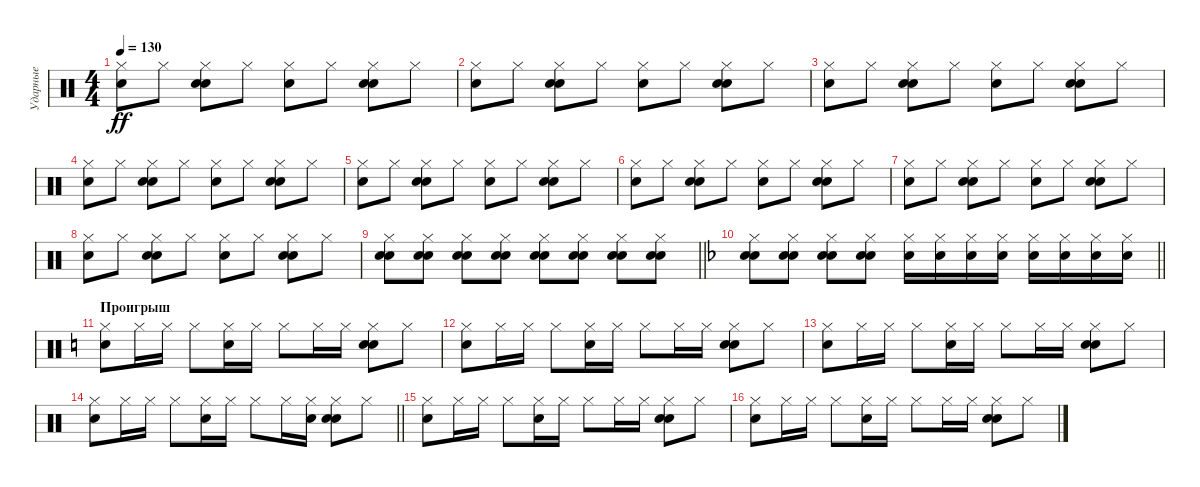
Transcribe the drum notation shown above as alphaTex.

\track ("Ударные" "Ударные") {instrument percussion}
\staff {score}
\articulation defaults
\ts (4 4)
\tempo 130
\clef neutral
\ks c
("Hi-Hat (closed)" "Snare (hit) 2").8{dy ff} "Hi-Hat (closed)".8 ("Hi-Hat (closed)" "Snare (hit) 2" "Electric Snare (hit)").8 "Hi-Hat (closed)".8 ("Hi-Hat (closed)" "Snare (hit) 2").8 "Hi-Hat (closed)".8 ("Hi-Hat (closed)" "Snare (hit) 2" "Electric Snare (hit)").8 "Hi-Hat (closed)".8 |
("Hi-Hat (closed)" "Snare (hit) 2").8 "Hi-Hat (closed)".8 ("Hi-Hat (closed)" "Snare (hit) 2" "Electric Snare (hit)").8 "Hi-Hat (closed)".8 ("Hi-Hat (closed)" "Snare (hit) 2").8 "Hi-Hat (closed)".8 ("Hi-Hat (closed)" "Snare (hit) 2" "Electric Snare (hit)").8 "Hi-Hat (closed)".8 |
("Hi-Hat (closed)" "Snare (hit) 2").8 "Hi-Hat (closed)".8 ("Hi-Hat (closed)" "Snare (hit) 2" "Electric Snare (hit)").8 "Hi-Hat (closed)".8 ("Hi-Hat (closed)" "Snare (hit) 2").8 "Hi-Hat (closed)".8 ("Hi-Hat (closed)" "Snare (hit) 2" "Electric Snare (hit)").8 "Hi-Hat (closed)".8 |
("Hi-Hat (closed)" "Snare (hit) 2").8 "Hi-Hat (closed)".8 ("Hi-Hat (closed)" "Snare (hit) 2" "Electric Snare (hit)").8 "Hi-Hat (closed)".8 ("Hi-Hat (closed)" "Snare (hit) 2").8 "Hi-Hat (closed)".8 ("Hi-Hat (closed)" "Snare (hit) 2" "Electric Snare (hit)").8 "Hi-Hat (closed)".8 |
("Hi-Hat (closed)" "Snare (hit) 2").8 "Hi-Hat (closed)".8 ("Hi-Hat (closed)" "Snare (hit) 2" "Electric Snare (hit)").8 "Hi-Hat (closed)".8 ("Hi-Hat (closed)" "Snare (hit) 2").8 "Hi-Hat (closed)".8 ("Hi-Hat (closed)" "Snare (hit) 2" "Electric Snare (hit)").8 "Hi-Hat (closed)".8 |
("Hi-Hat (closed)" "Snare (hit) 2").8 "Hi-Hat (closed)".8 ("Hi-Hat (closed)" "Snare (hit) 2" "Electric Snare (hit)").8 "Hi-Hat (closed)".8 ("Hi-Hat (closed)" "Snare (hit) 2").8 "Hi-Hat (closed)".8 ("Hi-Hat (closed)" "Snare (hit) 2" "Electric Snare (hit)").8 "Hi-Hat (closed)".8 |
("Hi-Hat (closed)" "Snare (hit) 2").8 "Hi-Hat (closed)".8 ("Hi-Hat (closed)" "Snare (hit) 2" "Electric Snare (hit)").8 "Hi-Hat (closed)".8 ("Hi-Hat (closed)" "Snare (hit) 2").8 "Hi-Hat (closed)".8 ("Hi-Hat (closed)" "Snare (hit) 2" "Electric Snare (hit)").8 "Hi-Hat (closed)".8 |
("Hi-Hat (closed)" "Snare (hit) 2").8 "Hi-Hat (closed)".8 ("Hi-Hat (closed)" "Snare (hit) 2" "Electric Snare (hit)").8 "Hi-Hat (closed)".8 ("Hi-Hat (closed)" "Snare (hit) 2").8 "Hi-Hat (closed)".8 ("Hi-Hat (closed)" "Snare (hit) 2" "Electric Snare (hit)").8 "Hi-Hat (closed)".8 |
\barLineRight lightlight
("Hi-Hat (closed)" "Snare (hit) 2" "Electric Snare (hit)").8 ("Hi-Hat (closed)" "Snare (hit) 2" "Electric Snare (hit)").8 ("Hi-Hat (closed)" "Snare (hit) 2" "Electric Snare (hit)").8 ("Hi-Hat (closed)" "Snare (hit) 2" "Electric Snare (hit)").8 ("Hi-Hat (closed)" "Snare (hit) 2" "Electric Snare (hit)").8 ("Hi-Hat (closed)" "Snare (hit) 2" "Electric Snare (hit)").8 ("Hi-Hat (closed)" "Snare (hit) 2" "Electric Snare (hit)").8 ("Hi-Hat (closed)" "Snare (hit) 2" "Electric Snare (hit)").8 |
\barLineRight lightlight
\ks f
("Hi-Hat (closed)" "Snare (hit) 2" "Electric Snare (hit)").8 ("Hi-Hat (closed)" "Snare (hit) 2" "Electric Snare (hit)").8 ("Hi-Hat (closed)" "Snare (hit) 2" "Electric Snare (hit)").8 ("Hi-Hat (closed)" "Snare (hit) 2" "Electric Snare (hit)").8 ("Hi-Hat (closed)" "Snare (hit) 2").16 ("Hi-Hat (closed)" "Snare (hit) 2").16 ("Hi-Hat (closed)" "Snare (hit) 2").16 ("Hi-Hat (closed)" "Snare (hit) 2").16 ("Hi-Hat (closed)" "Snare (hit) 2").16 ("Hi-Hat (closed)" "Snare (hit) 2").16 ("Hi-Hat (closed)" "Snare (hit) 2").16 ("Hi-Hat (closed)" "Snare (hit) 2").16 |
\section ("" "Проигрыш")
\ks c
("Hi-Hat (closed)" "Snare (hit) 2").8 "Hi-Hat (closed)".16 "Hi-Hat (closed)".16 "Hi-Hat (closed)".8 ("Hi-Hat (closed)" "Snare (hit) 2").16 "Hi-Hat (closed)".16 "Hi-Hat (closed)".8 "Hi-Hat (closed)".16 "Hi-Hat (closed)".16 ("Hi-Hat (closed)" "Snare (hit) 2" "Electric Snare (hit)").8 "Hi-Hat (closed)".8 |
("Hi-Hat (closed)" "Snare (hit) 2").8 "Hi-Hat (closed)".16 "Hi-Hat (closed)".16 "Hi-Hat (closed)".8 ("Hi-Hat (closed)" "Snare (hit) 2").16 "Hi-Hat (closed)".16 "Hi-Hat (closed)".8 "Hi-Hat (closed)".16 "Hi-Hat (closed)".16 ("Hi-Hat (closed)" "Snare (hit) 2" "Electric Snare (hit)").8 "Hi-Hat (closed)".8 |
("Hi-Hat (closed)" "Snare (hit) 2").8 "Hi-Hat (closed)".16 "Hi-Hat (closed)".16 "Hi-Hat (closed)".8 ("Hi-Hat (closed)" "Snare (hit) 2").16 "Hi-Hat (closed)".16 "Hi-Hat (closed)".8 "Hi-Hat (closed)".16 "Hi-Hat (closed)".16 ("Hi-Hat (closed)" "Snare (hit) 2" "Electric Snare (hit)").8 "Hi-Hat (closed)".8 |
\barLineRight lightlight
("Hi-Hat (closed)" "Snare (hit) 2").8 "Hi-Hat (closed)".16 "Hi-Hat (closed)".16 "Hi-Hat (closed)".8 ("Hi-Hat (closed)" "Snare (hit) 2").16 "Hi-Hat (closed)".16 "Hi-Hat (closed)".8 "Hi-Hat (closed)".16 ("Hi-Hat (closed)" "Electric Snare (hit)").16 ("Hi-Hat (closed)" "Snare (hit) 2" "Electric Snare (hit)").8 "Hi-Hat (closed)".8 |
("Hi-Hat (closed)" "Snare (hit) 2").8 "Hi-Hat (closed)".16 "Hi-Hat (closed)".16 "Hi-Hat (closed)".8 ("Hi-Hat (closed)" "Snare (hit) 2").16 "Hi-Hat (closed)".16 "Hi-Hat (closed)".8 "Hi-Hat (closed)".16 "Hi-Hat (closed)".16 ("Hi-Hat (closed)" "Snare (hit) 2" "Electric Snare (hit)").8 "Hi-Hat (closed)".8 |
("Hi-Hat (closed)" "Snare (hit) 2").8 "Hi-Hat (closed)".16 "Hi-Hat (closed)".16 "Hi-Hat (closed)".8 ("Hi-Hat (closed)" "Snare (hit) 2").16 "Hi-Hat (closed)".16 "Hi-Hat (closed)".8 "Hi-Hat (closed)".16 "Hi-Hat (closed)".16 ("Hi-Hat (closed)" "Snare (hit) 2" "Electric Snare (hit)").8 "Hi-Hat (closed)".8
